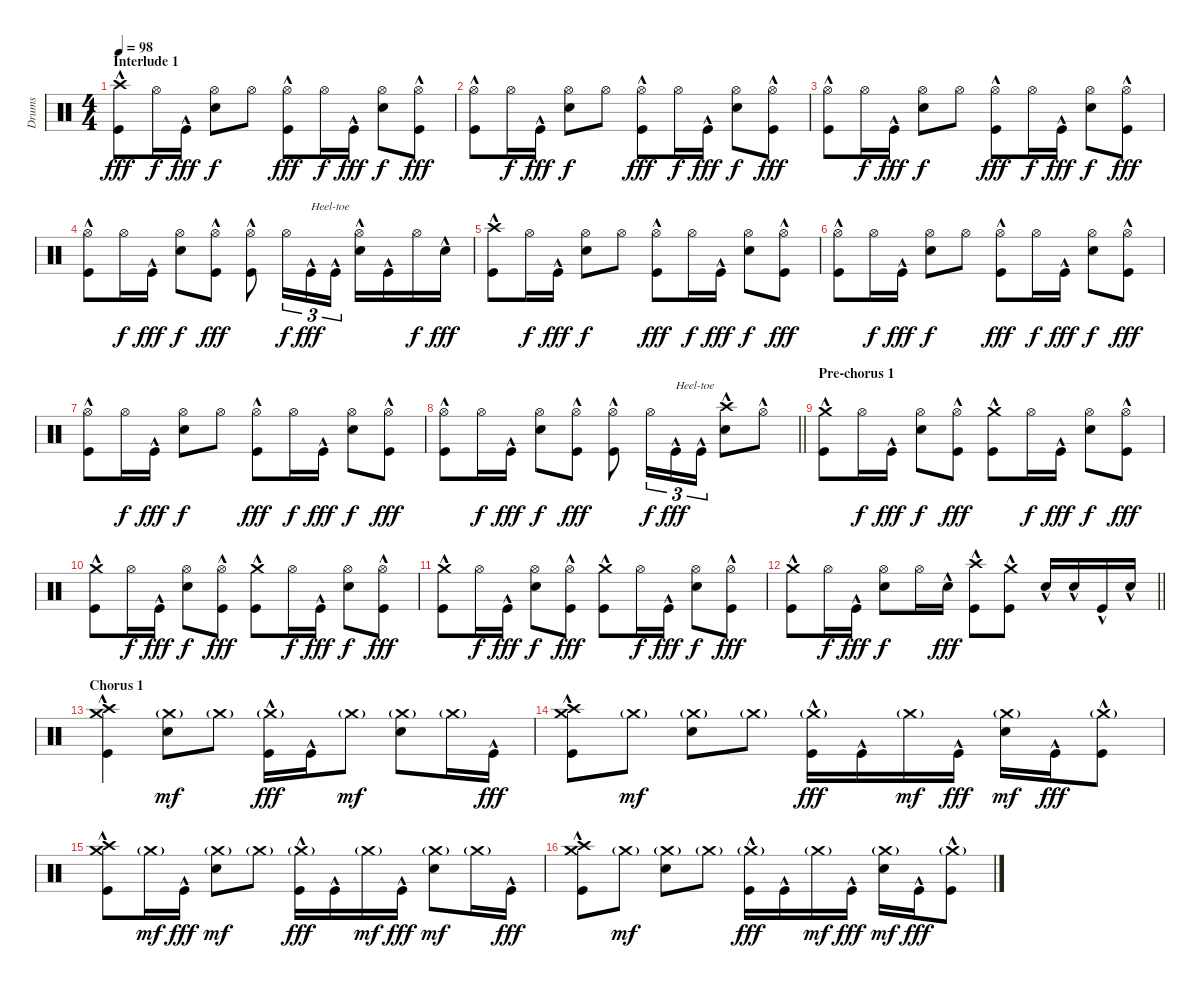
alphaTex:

\track ("Drums" "Drums") {instrument percussion}
\staff {score}
\articulation defaults
\ts (4 4)
\section ("" "Interlude 1")
\tempo 98
\clef neutral
\ks c
("Crash high (hit)" "Kick (hit)"{hac}).8{dy fff} "Hi-Hat (open)".16{dy f} "Kick (hit)"{hac}.16{dy fff} ("Hi-Hat (open)" "Snare (hit) 2").8{dy f} "Hi-Hat (open)".8 ("Hi-Hat (open)" "Kick (hit)"{hac}).8{dy fff} "Hi-Hat (open)".16{dy f} "Kick (hit)"{hac}.16{dy fff} ("Hi-Hat (open)" "Snare (hit) 2").8{dy f} ("Hi-Hat (open)" "Kick (hit)"{hac}).8{dy fff} |
("Hi-Hat (open)" "Kick (hit)"{hac}).8 "Hi-Hat (open)".16{dy f} "Kick (hit)"{hac}.16{dy fff} ("Hi-Hat (open)" "Snare (hit) 2").8{dy f} "Hi-Hat (open)".8 ("Hi-Hat (open)" "Kick (hit)"{hac}).8{dy fff} "Hi-Hat (open)".16{dy f} "Kick (hit)"{hac}.16{dy fff} ("Hi-Hat (open)" "Snare (hit) 2").8{dy f} ("Hi-Hat (open)" "Kick (hit)"{hac}).8{dy fff} |
("Hi-Hat (open)" "Kick (hit)"{hac}).8 "Hi-Hat (open)".16{dy f} "Kick (hit)"{hac}.16{dy fff} ("Hi-Hat (open)" "Snare (hit) 2").8{dy f} "Hi-Hat (open)".8 ("Hi-Hat (open)" "Kick (hit)"{hac}).8{dy fff} "Hi-Hat (open)".16{dy f} "Kick (hit)"{hac}.16{dy fff} ("Hi-Hat (open)" "Snare (hit) 2").8{dy f} ("Hi-Hat (open)" "Kick (hit)"{hac}).8{dy fff} |
("Hi-Hat (open)" "Kick (hit)"{hac}).8 "Hi-Hat (open)".16{dy f} "Kick (hit)"{hac}.16{dy fff} ("Hi-Hat (open)" "Snare (hit) 2").8{dy f} ("Hi-Hat (open)" "Kick (hit)"{hac}).8{dy fff} ("Hi-Hat (open)" "Kick (hit)"{hac}).8 "Hi-Hat (open)".16{tu (3 2) dy f} "Kick (hit)"{hac}.16{tu (3 2) txt "Heel-toe" dy fff} "Kick (hit)"{hac}.16{tu (3 2)} ("Hi-Hat (open)" "Snare (hit) 2"{hac}).16 "Kick (hit)"{hac}.16 "Hi-Hat (open)".16{dy f} "Snare (hit) 2"{hac}.16{dy fff} |
("Crash high (hit)" "Kick (hit)"{hac}).8 "Hi-Hat (open)".16{dy f} "Kick (hit)"{hac}.16{dy fff} ("Hi-Hat (open)" "Snare (hit) 2").8{dy f} "Hi-Hat (open)".8 ("Hi-Hat (open)" "Kick (hit)"{hac}).8{dy fff} "Hi-Hat (open)".16{dy f} "Kick (hit)"{hac}.16{dy fff} ("Hi-Hat (open)" "Snare (hit) 2").8{dy f} ("Hi-Hat (open)" "Kick (hit)"{hac}).8{dy fff} |
("Hi-Hat (open)" "Kick (hit)"{hac}).8 "Hi-Hat (open)".16{dy f} "Kick (hit)"{hac}.16{dy fff} ("Hi-Hat (open)" "Snare (hit) 2").8{dy f} "Hi-Hat (open)".8 ("Hi-Hat (open)" "Kick (hit)"{hac}).8{dy fff} "Hi-Hat (open)".16{dy f} "Kick (hit)"{hac}.16{dy fff} ("Hi-Hat (open)" "Snare (hit) 2").8{dy f} ("Hi-Hat (open)" "Kick (hit)"{hac}).8{dy fff} |
("Hi-Hat (open)" "Kick (hit)"{hac}).8 "Hi-Hat (open)".16{dy f} "Kick (hit)"{hac}.16{dy fff} ("Hi-Hat (open)" "Snare (hit) 2").8{dy f} "Hi-Hat (open)".8 ("Hi-Hat (open)" "Kick (hit)"{hac}).8{dy fff} "Hi-Hat (open)".16{dy f} "Kick (hit)"{hac}.16{dy fff} ("Hi-Hat (open)" "Snare (hit) 2").8{dy f} ("Hi-Hat (open)" "Kick (hit)"{hac}).8{dy fff} |
\barLineRight lightlight
("Hi-Hat (open)" "Kick (hit)"{hac}).8 "Hi-Hat (open)".16{dy f} "Kick (hit)"{hac}.16{dy fff} ("Hi-Hat (open)" "Snare (hit) 2").8{dy f} ("Hi-Hat (open)" "Kick (hit)"{hac}).8{dy fff} ("Hi-Hat (open)" "Kick (hit)"{hac}).8 "Hi-Hat (open)".16{tu (3 2) dy f} "Kick (hit)"{hac}.16{tu (3 2) txt "Heel-toe" dy fff} "Kick (hit)"{hac}.16{tu (3 2)} ("Crash high (hit)"{hac} "Snare (hit) 2"{hac}).8 "Hi-Hat (open)"{hac}.8 |
\section ("" "Pre-chorus 1")
("Crash medium (hit)" "Kick (hit)"{hac}).8 "Hi-Hat (open)".16{dy f} "Kick (hit)"{hac}.16{dy fff} ("Hi-Hat (open)" "Snare (hit) 2").8{dy f} ("Hi-Hat (open)" "Kick (hit)"{hac}).8{dy fff} ("Crash medium (hit)" "Kick (hit)"{hac}).8 "Hi-Hat (open)".16{dy f} "Kick (hit)"{hac}.16{dy fff} ("Hi-Hat (open)" "Snare (hit) 2").8{dy f} ("Hi-Hat (open)" "Kick (hit)"{hac}).8{dy fff} |
("Crash medium (hit)" "Kick (hit)"{hac}).8 "Hi-Hat (open)".16{dy f} "Kick (hit)"{hac}.16{dy fff} ("Hi-Hat (open)" "Snare (hit) 2").8{dy f} ("Hi-Hat (open)" "Kick (hit)"{hac}).8{dy fff} ("Crash medium (hit)" "Kick (hit)"{hac}).8 "Hi-Hat (open)".16{dy f} "Kick (hit)"{hac}.16{dy fff} ("Hi-Hat (open)" "Snare (hit) 2").8{dy f} ("Hi-Hat (open)" "Kick (hit)"{hac}).8{dy fff} |
("Crash medium (hit)" "Kick (hit)"{hac}).8 "Hi-Hat (open)".16{dy f} "Kick (hit)"{hac}.16{dy fff} ("Hi-Hat (open)" "Snare (hit) 2").8{dy f} ("Hi-Hat (open)" "Kick (hit)"{hac}).8{dy fff} ("Crash medium (hit)" "Kick (hit)"{hac}).8 "Hi-Hat (open)".16{dy f} "Kick (hit)"{hac}.16{dy fff} ("Hi-Hat (open)" "Snare (hit) 2").8{dy f} ("Hi-Hat (open)" "Kick (hit)"{hac}).8{dy fff} |
\barLineRight lightlight
("Crash medium (hit)" "Kick (hit)"{hac}).8 "Hi-Hat (open)".16{dy f} "Kick (hit)"{hac}.16{dy fff} ("Hi-Hat (open)" "Snare (hit) 2").8{dy f} "Hi-Hat (open)".16 "Snare (hit) 2"{hac}.16{dy fff} ("Crash high (hit)" "Kick (hit)"{hac}).8 ("Crash medium (hit)" "Kick (hit)"{hac}).8 "Snare (hit) 2"{hac}.16 "Snare (hit) 2"{hac}.16 "Kick (hit)"{hac}.16 "Snare (hit) 2"{hac}.16 |
\section ("" "Chorus 1")
("Crash medium (hit)" "Crash high (hit)" "Kick (hit)"{hac}).4 ("Crash medium (hit)"{g} "Snare (hit) 2").8{dy mf} "Crash medium (hit)"{g}.8 ("Crash medium (hit)"{g} "Kick (hit)"{hac}).16{dy fff} "Kick (hit)"{hac}.16 "Crash medium (hit)"{g}.8{dy mf} ("Crash medium (hit)"{g} "Snare (hit) 2").8 "Crash medium (hit)"{g}.16 "Kick (hit)"{hac}.16{dy fff} |
("Crash medium (hit)" "Crash high (hit)" "Kick (hit)"{hac}).8 "Crash medium (hit)"{g}.8{dy mf} ("Crash medium (hit)"{g} "Snare (hit) 2").8 "Crash medium (hit)"{g}.8 ("Crash medium (hit)"{g} "Kick (hit)"{hac}).16{dy fff} "Kick (hit)"{hac}.16 "Crash medium (hit)"{g}.16{dy mf} "Kick (hit)"{hac}.16{dy fff} ("Crash medium (hit)"{g} "Snare (hit) 2").16{dy mf} "Kick (hit)"{hac}.16{dy fff} ("Crash medium (hit)"{g} "Kick (hit)"{hac}).8 |
("Crash medium (hit)" "Crash high (hit)" "Kick (hit)"{hac}).8 "Crash medium (hit)"{g}.16{dy mf} "Kick (hit)"{hac}.16{dy fff} ("Crash medium (hit)"{g} "Snare (hit) 2").8{dy mf} "Crash medium (hit)"{g}.8 ("Crash medium (hit)"{g} "Kick (hit)"{hac}).16{dy fff} "Kick (hit)"{hac}.16 "Crash medium (hit)"{g}.16{dy mf} "Kick (hit)"{hac}.16{dy fff} ("Crash medium (hit)"{g} "Snare (hit) 2").8{dy mf} "Crash medium (hit)"{g}.16 "Kick (hit)"{hac}.16{dy fff} |
("Crash medium (hit)" "Crash high (hit)" "Kick (hit)"{hac}).8 "Crash medium (hit)"{g}.8{dy mf} ("Crash medium (hit)"{g} "Snare (hit) 2").8 "Crash medium (hit)"{g}.8 ("Crash medium (hit)"{g} "Kick (hit)"{hac}).16{dy fff} "Kick (hit)"{hac}.16 "Crash medium (hit)"{g}.16{dy mf} "Kick (hit)"{hac}.16{dy fff} ("Crash medium (hit)"{g} "Snare (hit) 2").16{dy mf} "Kick (hit)"{hac}.16{dy fff} ("Crash medium (hit)"{g} "Kick (hit)"{hac}).8
